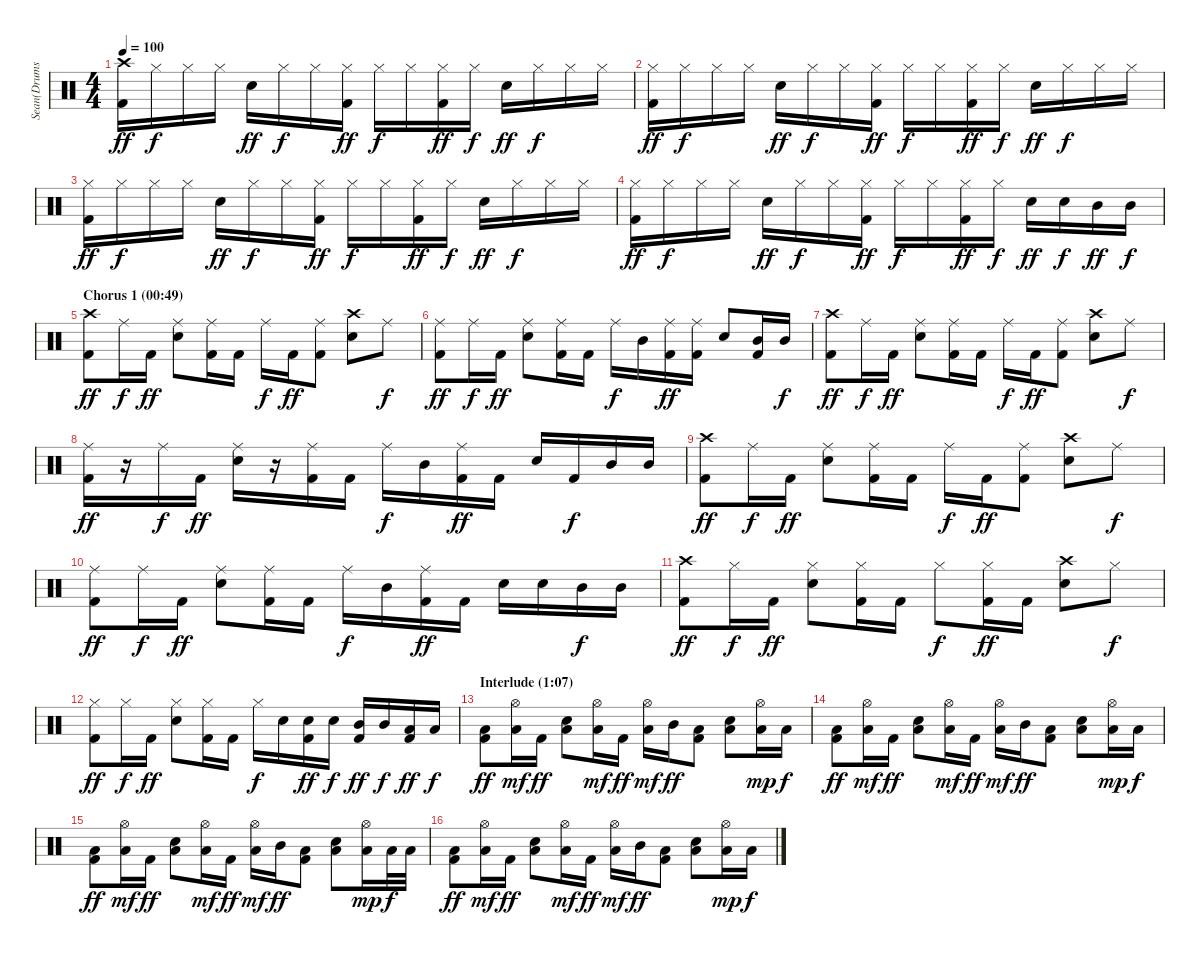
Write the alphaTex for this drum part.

\track ("Sean(Drums)" "Sean(Drums") {instrument percussion}
\staff {score}
\articulation defaults
\ts (4 4)
\tempo 100
\clef neutral
\ks c
("Crash high (hit)" "Kick (hit) 2").16{dy ff} "Hi-Hat (closed)".16{dy f} "Hi-Hat (closed)".16 "Hi-Hat (closed)".16 "Electric Snare (hit)".16{dy ff} "Hi-Hat (closed)".16{dy f} "Hi-Hat (closed)".16 ("Hi-Hat (closed)" "Kick (hit) 2").16{dy ff} "Hi-Hat (closed)".16{dy f} "Hi-Hat (closed)".16 ("Hi-Hat (closed)" "Kick (hit) 2").16{dy ff} "Hi-Hat (closed)".16{dy f} "Electric Snare (hit)".16{dy ff} "Hi-Hat (closed)".16{dy f} "Hi-Hat (closed)".16 "Hi-Hat (closed)".16 |
("Hi-Hat (closed)" "Kick (hit) 2").16{dy ff} "Hi-Hat (closed)".16{dy f} "Hi-Hat (closed)".16 "Hi-Hat (closed)".16 "Electric Snare (hit)".16{dy ff} "Hi-Hat (closed)".16{dy f} "Hi-Hat (closed)".16 ("Hi-Hat (closed)" "Kick (hit) 2").16{dy ff} "Hi-Hat (closed)".16{dy f} "Hi-Hat (closed)".16 ("Hi-Hat (closed)" "Kick (hit) 2").16{dy ff} "Hi-Hat (closed)".16{dy f} "Electric Snare (hit)".16{dy ff} "Hi-Hat (closed)".16{dy f} "Hi-Hat (closed)".16 "Hi-Hat (closed)".16 |
("Hi-Hat (closed)" "Kick (hit) 2").16{dy ff} "Hi-Hat (closed)".16{dy f} "Hi-Hat (closed)".16 "Hi-Hat (closed)".16 "Electric Snare (hit)".16{dy ff} "Hi-Hat (closed)".16{dy f} "Hi-Hat (closed)".16 ("Hi-Hat (closed)" "Kick (hit) 2").16{dy ff} "Hi-Hat (closed)".16{dy f} "Hi-Hat (closed)".16 ("Hi-Hat (closed)" "Kick (hit) 2").16{dy ff} "Hi-Hat (closed)".16{dy f} "Electric Snare (hit)".16{dy ff} "Hi-Hat (closed)".16{dy f} "Hi-Hat (closed)".16 "Hi-Hat (closed)".16 |
("Hi-Hat (closed)" "Kick (hit) 2").16{dy ff} "Hi-Hat (closed)".16{dy f} "Hi-Hat (closed)".16 "Hi-Hat (closed)".16 "Electric Snare (hit)".16{dy ff} "Hi-Hat (closed)".16{dy f} "Hi-Hat (closed)".16 ("Hi-Hat (closed)" "Kick (hit) 2").16{dy ff} "Hi-Hat (closed)".16{dy f} "Hi-Hat (closed)".16 ("Hi-Hat (closed)" "Kick (hit) 2").16{dy ff} "Hi-Hat (closed)".16{dy f} "Electric Snare (hit)".16{dy ff} "Electric Snare (hit)".16{dy f} "Mid Tom (hit)".16{dy ff} "Mid Tom (hit)".16{dy f} |
\section ("" "Chorus 1 (00:49)")
("Crash high (hit)" "Kick (hit) 2").8{dy ff} "Ride (middle)".16{dy f} "Kick (hit) 2".16{dy ff} ("Ride (middle)" "Electric Snare (hit)").8 ("Ride (middle)" "Kick (hit) 2").16 "Kick (hit) 2".16 "Ride (middle)".16{dy f} "Kick (hit) 2".16{dy ff} ("Ride (middle)" "Kick (hit) 2").8 ("Crash high (hit)" "Electric Snare (hit)").8 "Ride (middle)".8{dy f} |
("Ride (middle)" "Kick (hit) 2").8{dy ff} "Ride (middle)".16{dy f} "Kick (hit) 2".16{dy ff} ("Ride (middle)" "Electric Snare (hit)").8 ("Ride (middle)" "Kick (hit) 2").16 "Kick (hit) 2".16 "Ride (middle)".16{dy f} "Mid Tom (hit)".16 ("Ride (middle)" "Kick (hit) 2").16{dy ff} ("Ride (middle)" "Kick (hit) 2").16 "Electric Snare (hit)".8 ("Mid Tom (hit)" "Kick (hit) 2").16 "Mid Tom (hit)".16{dy f} |
("Crash high (hit)" "Kick (hit) 2").8{dy ff} "Ride (middle)".16{dy f} "Kick (hit) 2".16{dy ff} ("Ride (middle)" "Electric Snare (hit)").8 ("Ride (middle)" "Kick (hit) 2").16 "Kick (hit) 2".16 "Ride (middle)".16{dy f} "Kick (hit) 2".16{dy ff} ("Ride (middle)" "Kick (hit) 2").8 ("Crash high (hit)" "Electric Snare (hit)").8 "Ride (middle)".8{dy f} |
("Ride (middle)" "Kick (hit) 2").16{dy ff} r.16 "Ride (middle)".16{dy f} "Kick (hit) 2".16{dy ff} ("Ride (middle)" "Electric Snare (hit)").16 r.16 ("Ride (middle)" "Kick (hit) 2").16 "Kick (hit) 2".16 "Ride (middle)".16{dy f} "Mid Tom (hit)".16 ("Ride (middle)" "Kick (hit) 2").16{dy ff} "Kick (hit) 2".16 "Electric Snare (hit)".16 "Kick (hit) 2".16{dy f} "Mid Tom (hit)".16 "Mid Tom (hit)".16 |
("Crash high (hit)" "Kick (hit) 2").8{dy ff} "Ride (middle)".16{dy f} "Kick (hit) 2".16{dy ff} ("Ride (middle)" "Electric Snare (hit)").8 ("Ride (middle)" "Kick (hit) 2").16 "Kick (hit) 2".16 "Ride (middle)".16{dy f} "Kick (hit) 2".16{dy ff} ("Ride (middle)" "Kick (hit) 2").8 ("Crash high (hit)" "Electric Snare (hit)").8 "Ride (middle)".8{dy f} |
("Ride (middle)" "Kick (hit) 2").8{dy ff} "Ride (middle)".16{dy f} "Kick (hit) 2".16{dy ff} ("Ride (middle)" "Electric Snare (hit)").8 ("Ride (middle)" "Kick (hit) 2").16 "Kick (hit) 2".16 "Ride (middle)".16{dy f} "Mid Tom (hit)".16 ("Ride (middle)" "Kick (hit) 2").16{dy ff} "Kick (hit) 2".16 "Electric Snare (hit)".16 "Electric Snare (hit)".16 "Mid Tom (hit)".16{dy f} "Mid Tom (hit)".16 |
("Crash high (hit)" "Kick (hit) 2").8{dy ff} "Hi-Hat (closed)".16{dy f} "Kick (hit) 2".16{dy ff} ("Hi-Hat (closed)" "Electric Snare (hit)").8 ("Hi-Hat (closed)" "Kick (hit) 2").16 "Kick (hit) 2".16 "Hi-Hat (closed)".8{dy f} ("Hi-Hat (closed)" "Kick (hit) 2").16{dy ff} "Kick (hit) 2".16 ("Crash high (hit)" "Electric Snare (hit)").8 "Hi-Hat (closed)".8{dy f} |
("Hi-Hat (closed)" "Kick (hit) 2").8{dy ff} "Hi-Hat (closed)".16{dy f} "Kick (hit) 2".16{dy ff} ("Hi-Hat (closed)" "Electric Snare (hit)").8 ("Hi-Hat (closed)" "Kick (hit) 2").16 "Kick (hit) 2".16 "Hi-Hat (closed)".16{dy f} "Electric Snare (hit)".16 ("Electric Snare (hit)" "Kick (hit) 2").16{dy ff} "Electric Snare (hit)".16{dy f} ("Mid Tom (hit)" "Kick (hit) 2").16{dy ff} "Mid Tom (hit)".16{dy f} ("Low Floor Tom (hit)" "Kick (hit) 2").16{dy ff} "Low Floor Tom (hit)".16{dy f} |
\section ("" "Interlude (1:07)")
("Low Tom (hit)" "Kick (hit) 2").8{dy ff} ("Hi-Hat (open)" "Low Tom (hit)").16{dy mf} "Kick (hit) 2".16{dy ff} ("Low Tom (hit)" "Electric Snare (hit)").8 ("Hi-Hat (open)" "Low Tom (hit)").16{dy mf} "Kick (hit) 2".16{dy ff} ("Hi-Hat (open)" "Low Tom (hit)").16{dy mf} "Mid Tom (hit)".16{dy ff} ("Low Tom (hit)" "Kick (hit) 2").8 ("Low Tom (hit)" "Electric Snare (hit)").8 ("Hi-Hat (open)" "Low Tom (hit)").16{dy mp} "Low Tom (hit)".16{dy f} |
("Low Tom (hit)" "Kick (hit) 2").8{dy ff} ("Hi-Hat (open)" "Low Tom (hit)").16{dy mf} "Kick (hit) 2".16{dy ff} ("Low Tom (hit)" "Electric Snare (hit)").8 ("Hi-Hat (open)" "Low Tom (hit)").16{dy mf} "Kick (hit) 2".16{dy ff} ("Hi-Hat (open)" "Low Tom (hit)").16{dy mf} "Mid Tom (hit)".16{dy ff} ("Low Tom (hit)" "Kick (hit) 2").8 ("Low Tom (hit)" "Electric Snare (hit)").8 ("Hi-Hat (open)" "Low Tom (hit)").16{dy mp} "Low Tom (hit)".16{dy f} |
("Low Tom (hit)" "Kick (hit) 2").8{dy ff} ("Hi-Hat (open)" "Low Tom (hit)").16{dy mf} "Kick (hit) 2".16{dy ff} ("Low Tom (hit)" "Electric Snare (hit)").8 ("Hi-Hat (open)" "Low Tom (hit)").16{dy mf} "Kick (hit) 2".16{dy ff} ("Hi-Hat (open)" "Low Tom (hit)").16{dy mf} "Mid Tom (hit)".16{dy ff} ("Low Tom (hit)" "Kick (hit) 2").8 ("Low Tom (hit)" "Electric Snare (hit)").8 ("Hi-Hat (open)" "Low Tom (hit)").16{dy mp} "Low Tom (hit)".32{dy f} "Low Tom (hit)".32 |
("Low Tom (hit)" "Kick (hit) 2").8{dy ff} ("Hi-Hat (open)" "Low Tom (hit)").16{dy mf} "Kick (hit) 2".16{dy ff} ("Low Tom (hit)" "Electric Snare (hit)").8 ("Hi-Hat (open)" "Low Tom (hit)").16{dy mf} "Kick (hit) 2".16{dy ff} ("Hi-Hat (open)" "Low Tom (hit)").16{dy mf} "Mid Tom (hit)".16{dy ff} ("Low Tom (hit)" "Kick (hit) 2").8 ("Low Tom (hit)" "Electric Snare (hit)").8 ("Hi-Hat (open)" "Low Tom (hit)").16{dy mp} "Low Tom (hit)".16{dy f}
